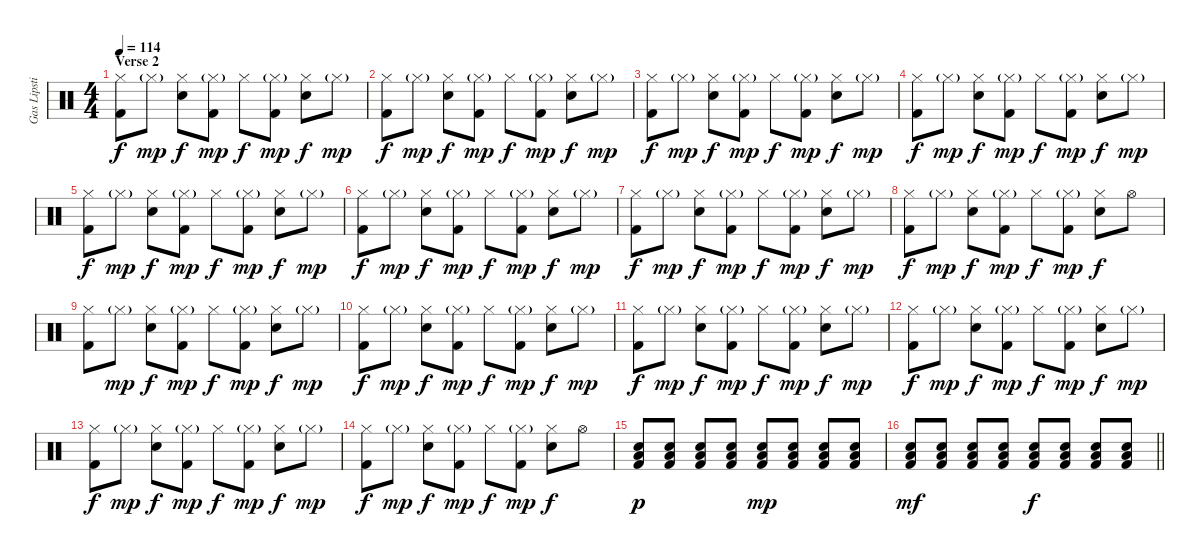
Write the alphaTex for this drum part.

\track ("Gas Lipstick (Drums)" "Gas Lipsti") {instrument percussion}
\staff {score}
\articulation defaults
\ts (4 4)
\section ("" "Verse 2")
\tempo 114
\clef neutral
\ks c
("Hi-Hat (closed)" "Kick (hit) 2").8{dy f} "Hi-Hat (closed)"{g}.8{dy mp} ("Hi-Hat (closed)" "Snare (hit) 2").8{dy f} ("Hi-Hat (closed)"{g} "Kick (hit) 2").8{dy mp} "Hi-Hat (closed)".8{dy f} ("Hi-Hat (closed)"{g} "Kick (hit) 2").8{dy mp} ("Hi-Hat (closed)" "Snare (hit) 2").8{dy f} "Hi-Hat (closed)"{g}.8{dy mp} |
("Hi-Hat (closed)" "Kick (hit) 2").8{dy f} "Hi-Hat (closed)"{g}.8{dy mp} ("Hi-Hat (closed)" "Snare (hit) 2").8{dy f} ("Hi-Hat (closed)"{g} "Kick (hit) 2").8{dy mp} "Hi-Hat (closed)".8{dy f} ("Hi-Hat (closed)"{g} "Kick (hit) 2").8{dy mp} ("Hi-Hat (closed)" "Snare (hit) 2").8{dy f} "Hi-Hat (closed)"{g}.8{dy mp} |
("Hi-Hat (closed)" "Kick (hit) 2").8{dy f} "Hi-Hat (closed)"{g}.8{dy mp} ("Hi-Hat (closed)" "Snare (hit) 2").8{dy f} ("Hi-Hat (closed)"{g} "Kick (hit) 2").8{dy mp} "Hi-Hat (closed)".8{dy f} ("Hi-Hat (closed)"{g} "Kick (hit) 2").8{dy mp} ("Hi-Hat (closed)" "Snare (hit) 2").8{dy f} "Hi-Hat (closed)"{g}.8{dy mp} |
("Hi-Hat (closed)" "Kick (hit) 2").8{dy f} "Hi-Hat (closed)"{g}.8{dy mp} ("Hi-Hat (closed)" "Snare (hit) 2").8{dy f} ("Hi-Hat (closed)"{g} "Kick (hit) 2").8{dy mp} "Hi-Hat (closed)".8{dy f} ("Hi-Hat (closed)"{g} "Kick (hit) 2").8{dy mp} ("Hi-Hat (closed)" "Snare (hit) 2").8{dy f} "Hi-Hat (closed)"{g}.8{dy mp} |
("Hi-Hat (closed)" "Kick (hit) 2").8{dy f} "Hi-Hat (closed)"{g}.8{dy mp} ("Hi-Hat (closed)" "Snare (hit) 2").8{dy f} ("Hi-Hat (closed)"{g} "Kick (hit) 2").8{dy mp} "Hi-Hat (closed)".8{dy f} ("Hi-Hat (closed)"{g} "Kick (hit) 2").8{dy mp} ("Hi-Hat (closed)" "Snare (hit) 2").8{dy f} "Hi-Hat (closed)"{g}.8{dy mp} |
("Hi-Hat (closed)" "Kick (hit) 2").8{dy f} "Hi-Hat (closed)"{g}.8{dy mp} ("Hi-Hat (closed)" "Snare (hit) 2").8{dy f} ("Hi-Hat (closed)"{g} "Kick (hit) 2").8{dy mp} "Hi-Hat (closed)".8{dy f} ("Hi-Hat (closed)"{g} "Kick (hit) 2").8{dy mp} ("Hi-Hat (closed)" "Snare (hit) 2").8{dy f} "Hi-Hat (closed)"{g}.8{dy mp} |
("Hi-Hat (closed)" "Kick (hit) 2").8{dy f} "Hi-Hat (closed)"{g}.8{dy mp} ("Hi-Hat (closed)" "Snare (hit) 2").8{dy f} ("Hi-Hat (closed)"{g} "Kick (hit) 2").8{dy mp} "Hi-Hat (closed)".8{dy f} ("Hi-Hat (closed)"{g} "Kick (hit) 2").8{dy mp} ("Hi-Hat (closed)" "Snare (hit) 2").8{dy f} "Hi-Hat (closed)"{g}.8{dy mp} |
("Hi-Hat (closed)" "Kick (hit) 2").8{dy f} "Hi-Hat (closed)"{g}.8{dy mp} ("Hi-Hat (closed)" "Snare (hit) 2").8{dy f} ("Hi-Hat (closed)"{g} "Kick (hit) 2").8{dy mp} "Hi-Hat (closed)".8{dy f} ("Hi-Hat (closed)"{g} "Kick (hit) 2").8{dy mp} ("Hi-Hat (closed)" "Snare (hit) 2").8{dy f} "Hi-Hat (open)".8 |
("Hi-Hat (closed)" "Kick (hit) 2").8 "Hi-Hat (closed)"{g}.8{dy mp} ("Hi-Hat (closed)" "Snare (hit) 2").8{dy f} ("Hi-Hat (closed)"{g} "Kick (hit) 2").8{dy mp} "Hi-Hat (closed)".8{dy f} ("Hi-Hat (closed)"{g} "Kick (hit) 2").8{dy mp} ("Hi-Hat (closed)" "Snare (hit) 2").8{dy f} "Hi-Hat (closed)"{g}.8{dy mp} |
("Hi-Hat (closed)" "Kick (hit) 2").8{dy f} "Hi-Hat (closed)"{g}.8{dy mp} ("Hi-Hat (closed)" "Snare (hit) 2").8{dy f} ("Hi-Hat (closed)"{g} "Kick (hit) 2").8{dy mp} "Hi-Hat (closed)".8{dy f} ("Hi-Hat (closed)"{g} "Kick (hit) 2").8{dy mp} ("Hi-Hat (closed)" "Snare (hit) 2").8{dy f} "Hi-Hat (closed)"{g}.8{dy mp} |
("Hi-Hat (closed)" "Kick (hit) 2").8{dy f} "Hi-Hat (closed)"{g}.8{dy mp} ("Hi-Hat (closed)" "Snare (hit) 2").8{dy f} ("Hi-Hat (closed)"{g} "Kick (hit) 2").8{dy mp} "Hi-Hat (closed)".8{dy f} ("Hi-Hat (closed)"{g} "Kick (hit) 2").8{dy mp} ("Hi-Hat (closed)" "Snare (hit) 2").8{dy f} "Hi-Hat (closed)"{g}.8{dy mp} |
("Hi-Hat (closed)" "Kick (hit) 2").8{dy f} "Hi-Hat (closed)"{g}.8{dy mp} ("Hi-Hat (closed)" "Snare (hit) 2").8{dy f} ("Hi-Hat (closed)"{g} "Kick (hit) 2").8{dy mp} "Hi-Hat (closed)".8{dy f} ("Hi-Hat (closed)"{g} "Kick (hit) 2").8{dy mp} ("Hi-Hat (closed)" "Snare (hit) 2").8{dy f} "Hi-Hat (closed)"{g}.8{dy mp} |
("Hi-Hat (closed)" "Kick (hit) 2").8{dy f} "Hi-Hat (closed)"{g}.8{dy mp} ("Hi-Hat (closed)" "Snare (hit) 2").8{dy f} ("Hi-Hat (closed)"{g} "Kick (hit) 2").8{dy mp} "Hi-Hat (closed)".8{dy f} ("Hi-Hat (closed)"{g} "Kick (hit) 2").8{dy mp} ("Hi-Hat (closed)" "Snare (hit) 2").8{dy f} "Hi-Hat (closed)"{g}.8{dy mp} |
("Hi-Hat (closed)" "Kick (hit) 2").8{dy f} "Hi-Hat (closed)"{g}.8{dy mp} ("Hi-Hat (closed)" "Snare (hit) 2").8{dy f} ("Hi-Hat (closed)"{g} "Kick (hit) 2").8{dy mp} "Hi-Hat (closed)".8{dy f} ("Hi-Hat (closed)"{g} "Kick (hit) 2").8{dy mp} ("Hi-Hat (closed)" "Snare (hit) 2").8{dy f} "Hi-Hat (open)".8 |
("Low Floor Tom (hit)" "Snare (hit) 2" "Kick (hit) 2").8{dy p} ("Low Floor Tom (hit)" "Snare (hit) 2" "Kick (hit) 2").8 ("Low Floor Tom (hit)" "Snare (hit) 2" "Kick (hit) 2").8 ("Low Floor Tom (hit)" "Snare (hit) 2" "Kick (hit) 2").8 ("Low Floor Tom (hit)" "Snare (hit) 2" "Kick (hit) 2").8{dy mp} ("Low Floor Tom (hit)" "Snare (hit) 2" "Kick (hit) 2").8 ("Low Floor Tom (hit)" "Snare (hit) 2" "Kick (hit) 2").8 ("Low Floor Tom (hit)" "Snare (hit) 2" "Kick (hit) 2").8 |
\barLineRight lightlight
("Low Floor Tom (hit)" "Snare (hit) 2" "Kick (hit) 2").8{dy mf} ("Low Floor Tom (hit)" "Snare (hit) 2" "Kick (hit) 2").8 ("Low Floor Tom (hit)" "Snare (hit) 2" "Kick (hit) 2").8 ("Low Floor Tom (hit)" "Snare (hit) 2" "Kick (hit) 2").8 ("Low Floor Tom (hit)" "Snare (hit) 2" "Kick (hit) 2").8{dy f} ("Low Floor Tom (hit)" "Snare (hit) 2" "Kick (hit) 2").8 ("Low Floor Tom (hit)" "Snare (hit) 2" "Kick (hit) 2").8 ("Low Floor Tom (hit)" "Snare (hit) 2" "Kick (hit) 2").8
